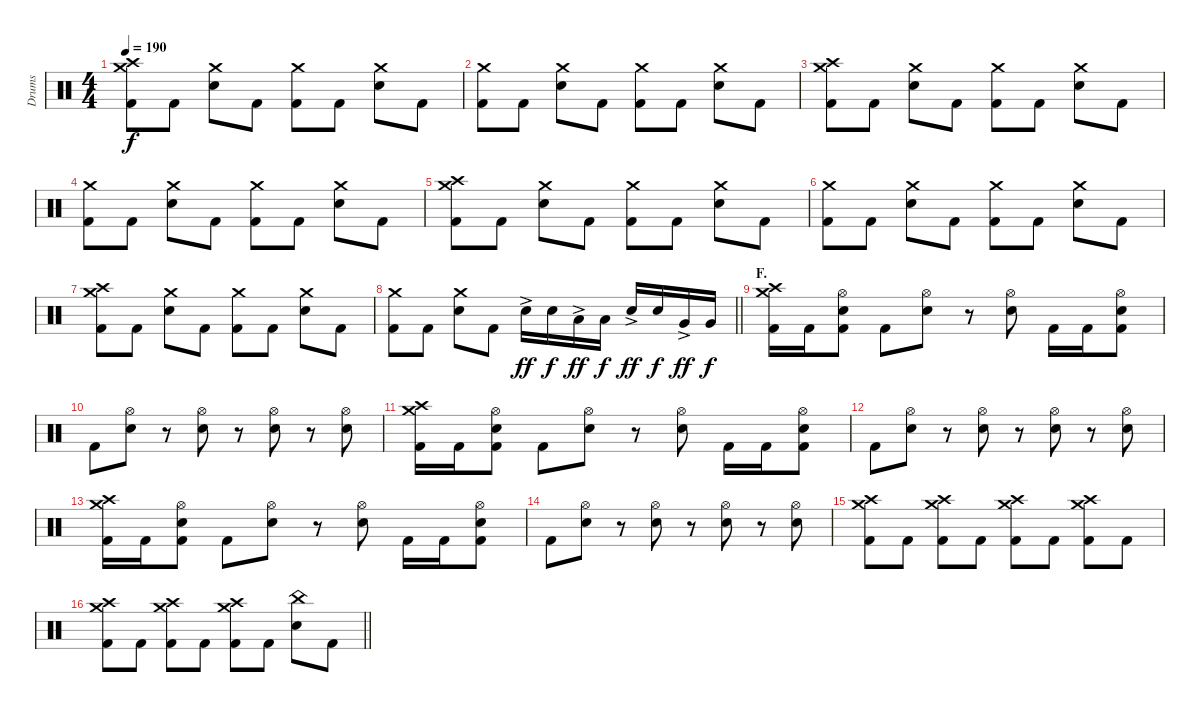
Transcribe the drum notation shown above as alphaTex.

\track ("Drums" "Drums") {instrument percussion}
\staff {score}
\articulation defaults
\ts (4 4)
\tempo 190
\clef neutral
\ks c
("Crash medium (hit)" "Crash high (hit)" "Kick (hit) 2").8{dy f} "Kick (hit) 2".8 ("Crash medium (hit)" "Electric Snare (hit)").8 "Kick (hit) 2".8 ("Crash medium (hit)" "Kick (hit) 2").8 "Kick (hit) 2".8 ("Crash medium (hit)" "Electric Snare (hit)").8 "Kick (hit) 2".8 |
("Crash medium (hit)" "Kick (hit) 2").8 "Kick (hit) 2".8 ("Crash medium (hit)" "Electric Snare (hit)").8 "Kick (hit) 2".8 ("Crash medium (hit)" "Kick (hit) 2").8 "Kick (hit) 2".8 ("Crash medium (hit)" "Electric Snare (hit)").8 "Kick (hit) 2".8 |
("Crash medium (hit)" "Crash high (hit)" "Kick (hit) 2").8 "Kick (hit) 2".8 ("Crash medium (hit)" "Electric Snare (hit)").8 "Kick (hit) 2".8 ("Crash medium (hit)" "Kick (hit) 2").8 "Kick (hit) 2".8 ("Crash medium (hit)" "Electric Snare (hit)").8 "Kick (hit) 2".8 |
("Crash medium (hit)" "Kick (hit) 2").8 "Kick (hit) 2".8 ("Crash medium (hit)" "Electric Snare (hit)").8 "Kick (hit) 2".8 ("Crash medium (hit)" "Kick (hit) 2").8 "Kick (hit) 2".8 ("Crash medium (hit)" "Electric Snare (hit)").8 "Kick (hit) 2".8 |
("Crash medium (hit)" "Crash high (hit)" "Kick (hit) 2").8 "Kick (hit) 2".8 ("Crash medium (hit)" "Electric Snare (hit)").8 "Kick (hit) 2".8 ("Crash medium (hit)" "Kick (hit) 2").8 "Kick (hit) 2".8 ("Crash medium (hit)" "Electric Snare (hit)").8 "Kick (hit) 2".8 |
("Crash medium (hit)" "Kick (hit) 2").8 "Kick (hit) 2".8 ("Crash medium (hit)" "Electric Snare (hit)").8 "Kick (hit) 2".8 ("Crash medium (hit)" "Kick (hit) 2").8 "Kick (hit) 2".8 ("Crash medium (hit)" "Electric Snare (hit)").8 "Kick (hit) 2".8 |
("Crash medium (hit)" "Crash high (hit)" "Kick (hit) 2").8 "Kick (hit) 2".8 ("Crash medium (hit)" "Electric Snare (hit)").8 "Kick (hit) 2".8 ("Crash medium (hit)" "Kick (hit) 2").8 "Kick (hit) 2".8 ("Crash medium (hit)" "Electric Snare (hit)").8 "Kick (hit) 2".8 |
\barLineRight lightlight
("Crash medium (hit)" "Kick (hit) 2").8 "Kick (hit) 2".8 ("Crash medium (hit)" "Electric Snare (hit)").8 "Kick (hit) 2".8 "Electric Snare (hit)"{ac}.16{dy ff} "Electric Snare (hit)".16{dy f} "Low Tom (hit)"{ac}.16{dy ff} "Low Tom (hit)".16{dy f} "Electric Snare (hit)"{ac}.16{dy ff} "Electric Snare (hit)".16{dy f} "Very Low Tom (hit)"{ac}.16{dy ff} "Very Low Tom (hit)".16{dy f} |
\section ("" "F.")
("Crash medium (hit)" "Crash high (hit)" "Kick (hit) 2").16 "Kick (hit) 2".16 ("Hi-Hat (open)" "Electric Snare (hit)" "Kick (hit) 2").8 "Kick (hit) 2".8 ("Hi-Hat (open)" "Electric Snare (hit)").8 r.8 ("Hi-Hat (open)" "Electric Snare (hit)").8 "Kick (hit) 2".16 "Kick (hit) 2".16 ("Hi-Hat (open)" "Electric Snare (hit)" "Kick (hit) 2").8 |
"Kick (hit) 2".8 ("Hi-Hat (open)" "Electric Snare (hit)").8 r.8 ("Hi-Hat (open)" "Electric Snare (hit)").8 r.8 ("Hi-Hat (open)" "Electric Snare (hit)").8 r.8 ("Hi-Hat (open)" "Electric Snare (hit)").8 |
("Crash medium (hit)" "Crash high (hit)" "Kick (hit) 2").16 "Kick (hit) 2".16 ("Hi-Hat (open)" "Electric Snare (hit)" "Kick (hit) 2").8 "Kick (hit) 2".8 ("Hi-Hat (open)" "Electric Snare (hit)").8 r.8 ("Hi-Hat (open)" "Electric Snare (hit)").8 "Kick (hit) 2".16 "Kick (hit) 2".16 ("Hi-Hat (open)" "Electric Snare (hit)" "Kick (hit) 2").8 |
"Kick (hit) 2".8 ("Hi-Hat (open)" "Electric Snare (hit)").8 r.8 ("Hi-Hat (open)" "Electric Snare (hit)").8 r.8 ("Hi-Hat (open)" "Electric Snare (hit)").8 r.8 ("Hi-Hat (open)" "Electric Snare (hit)").8 |
("Crash medium (hit)" "Crash high (hit)" "Kick (hit) 2").16 "Kick (hit) 2".16 ("Hi-Hat (open)" "Electric Snare (hit)" "Kick (hit) 2").8 "Kick (hit) 2".8 ("Hi-Hat (open)" "Electric Snare (hit)").8 r.8 ("Hi-Hat (open)" "Electric Snare (hit)").8 "Kick (hit) 2".16 "Kick (hit) 2".16 ("Hi-Hat (open)" "Electric Snare (hit)" "Kick (hit) 2").8 |
"Kick (hit) 2".8 ("Hi-Hat (open)" "Electric Snare (hit)").8 r.8 ("Hi-Hat (open)" "Electric Snare (hit)").8 r.8 ("Hi-Hat (open)" "Electric Snare (hit)").8 r.8 ("Hi-Hat (open)" "Electric Snare (hit)").8 |
("Crash medium (hit)" "Crash high (hit)" "Kick (hit) 2").8 "Kick (hit) 2".8 ("Crash medium (hit)" "Crash high (hit)" "Kick (hit) 2").8 "Kick (hit) 2".8 ("Crash medium (hit)" "Crash high (hit)" "Kick (hit) 2").8 "Kick (hit) 2".8 ("Crash medium (hit)" "Crash high (hit)" "Kick (hit) 2").8 "Kick (hit) 2".8 |
\barLineRight lightlight
("Crash medium (hit)" "Crash high (hit)" "Kick (hit) 2").8 "Kick (hit) 2".8 ("Crash medium (hit)" "Crash high (hit)" "Kick (hit) 2").8 "Kick (hit) 2".8 ("Crash medium (hit)" "Crash high (hit)" "Kick (hit) 2").8 "Kick (hit) 2".8 ("China (hit)" "Electric Snare (hit)").8 "Kick (hit) 2".8
